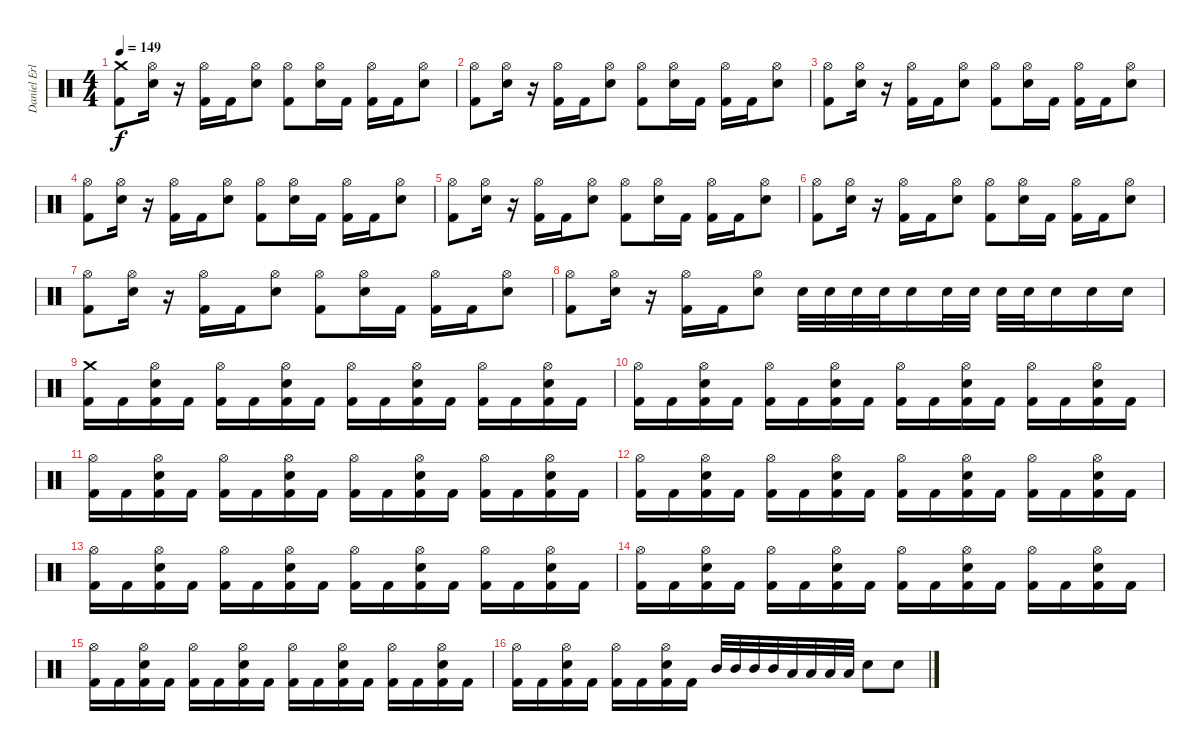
\track ("Daniel Erlandsson" "Daniel Erl") {instrument percussion}
\staff {score}
\articulation defaults
\ts (4 4)
\tempo 149
\clef neutral
\ks c
("Kick (hit) 2" "Crash medium (hit)").8{dy f} ("Electric Snare (hit)" "Hi-Hat (open)").16 r.16 ("Kick (hit) 2" "Hi-Hat (open)").16 "Kick (hit) 2".16 ("Electric Snare (hit)" "Hi-Hat (open)").8 ("Kick (hit) 2" "Hi-Hat (open)").8 ("Electric Snare (hit)" "Hi-Hat (open)").16 "Kick (hit) 2".16 ("Kick (hit) 2" "Hi-Hat (open)").16 "Kick (hit) 2".16 ("Electric Snare (hit)" "Hi-Hat (open)").8 |
("Kick (hit) 2" "Hi-Hat (open)").8 ("Electric Snare (hit)" "Hi-Hat (open)").16 r.16 ("Kick (hit) 2" "Hi-Hat (open)").16 "Kick (hit) 2".16 ("Electric Snare (hit)" "Hi-Hat (open)").8 ("Kick (hit) 2" "Hi-Hat (open)").8 ("Electric Snare (hit)" "Hi-Hat (open)").16 "Kick (hit) 2".16 ("Kick (hit) 2" "Hi-Hat (open)").16 "Kick (hit) 2".16 ("Electric Snare (hit)" "Hi-Hat (open)").8 |
("Kick (hit) 2" "Hi-Hat (open)").8 ("Electric Snare (hit)" "Hi-Hat (open)").16 r.16 ("Kick (hit) 2" "Hi-Hat (open)").16 "Kick (hit) 2".16 ("Electric Snare (hit)" "Hi-Hat (open)").8 ("Kick (hit) 2" "Hi-Hat (open)").8 ("Electric Snare (hit)" "Hi-Hat (open)").16 "Kick (hit) 2".16 ("Kick (hit) 2" "Hi-Hat (open)").16 "Kick (hit) 2".16 ("Electric Snare (hit)" "Hi-Hat (open)").8 |
("Kick (hit) 2" "Hi-Hat (open)").8 ("Electric Snare (hit)" "Hi-Hat (open)").16 r.16 ("Kick (hit) 2" "Hi-Hat (open)").16 "Kick (hit) 2".16 ("Electric Snare (hit)" "Hi-Hat (open)").8 ("Kick (hit) 2" "Hi-Hat (open)").8 ("Electric Snare (hit)" "Hi-Hat (open)").16 "Kick (hit) 2".16 ("Kick (hit) 2" "Hi-Hat (open)").16 "Kick (hit) 2".16 ("Electric Snare (hit)" "Hi-Hat (open)").8 |
("Kick (hit) 2" "Hi-Hat (open)").8 ("Electric Snare (hit)" "Hi-Hat (open)").16 r.16 ("Kick (hit) 2" "Hi-Hat (open)").16 "Kick (hit) 2".16 ("Electric Snare (hit)" "Hi-Hat (open)").8 ("Kick (hit) 2" "Hi-Hat (open)").8 ("Electric Snare (hit)" "Hi-Hat (open)").16 "Kick (hit) 2".16 ("Kick (hit) 2" "Hi-Hat (open)").16 "Kick (hit) 2".16 ("Electric Snare (hit)" "Hi-Hat (open)").8 |
("Kick (hit) 2" "Hi-Hat (open)").8 ("Electric Snare (hit)" "Hi-Hat (open)").16 r.16 ("Kick (hit) 2" "Hi-Hat (open)").16 "Kick (hit) 2".16 ("Electric Snare (hit)" "Hi-Hat (open)").8 ("Kick (hit) 2" "Hi-Hat (open)").8 ("Electric Snare (hit)" "Hi-Hat (open)").16 "Kick (hit) 2".16 ("Kick (hit) 2" "Hi-Hat (open)").16 "Kick (hit) 2".16 ("Electric Snare (hit)" "Hi-Hat (open)").8 |
("Kick (hit) 2" "Hi-Hat (open)").8 ("Electric Snare (hit)" "Hi-Hat (open)").16 r.16 ("Kick (hit) 2" "Hi-Hat (open)").16 "Kick (hit) 2".16 ("Electric Snare (hit)" "Hi-Hat (open)").8 ("Kick (hit) 2" "Hi-Hat (open)").8 ("Electric Snare (hit)" "Hi-Hat (open)").16 "Kick (hit) 2".16 ("Kick (hit) 2" "Hi-Hat (open)").16 "Kick (hit) 2".16 ("Electric Snare (hit)" "Hi-Hat (open)").8 |
("Kick (hit) 2" "Hi-Hat (open)").8 ("Electric Snare (hit)" "Hi-Hat (open)").16 r.16 ("Kick (hit) 2" "Hi-Hat (open)").16 "Kick (hit) 2".16 ("Electric Snare (hit)" "Hi-Hat (open)").8 "Electric Snare (hit)".32 "Electric Snare (hit)".32 "Electric Snare (hit)".32 "Electric Snare (hit)".32 "Electric Snare (hit)".16 "Electric Snare (hit)".32 "Electric Snare (hit)".32 "Electric Snare (hit)".32 "Electric Snare (hit)".32 "Electric Snare (hit)".16 "Electric Snare (hit)".16 "Electric Snare (hit)".16 |
("Kick (hit) 2" "Crash medium (hit)").16 "Kick (hit) 2".16 ("Kick (hit) 2" "Electric Snare (hit)" "Hi-Hat (open)").16 "Kick (hit) 2".16 ("Kick (hit) 2" "Hi-Hat (open)").16 "Kick (hit) 2".16 ("Kick (hit) 2" "Electric Snare (hit)" "Hi-Hat (open)").16 "Kick (hit) 2".16 ("Kick (hit) 2" "Hi-Hat (open)").16 "Kick (hit) 2".16 ("Kick (hit) 2" "Electric Snare (hit)" "Hi-Hat (open)").16 "Kick (hit) 2".16 ("Kick (hit) 2" "Hi-Hat (open)").16 "Kick (hit) 2".16 ("Kick (hit) 2" "Electric Snare (hit)" "Hi-Hat (open)").16 "Kick (hit) 2".16 |
("Kick (hit) 2" "Hi-Hat (open)").16 "Kick (hit) 2".16 ("Kick (hit) 2" "Electric Snare (hit)" "Hi-Hat (open)").16 "Kick (hit) 2".16 ("Kick (hit) 2" "Hi-Hat (open)").16 "Kick (hit) 2".16 ("Kick (hit) 2" "Electric Snare (hit)" "Hi-Hat (open)").16 "Kick (hit) 2".16 ("Kick (hit) 2" "Hi-Hat (open)").16 "Kick (hit) 2".16 ("Kick (hit) 2" "Electric Snare (hit)" "Hi-Hat (open)").16 "Kick (hit) 2".16 ("Kick (hit) 2" "Hi-Hat (open)").16 "Kick (hit) 2".16 ("Kick (hit) 2" "Electric Snare (hit)" "Hi-Hat (open)").16 "Kick (hit) 2".16 |
("Kick (hit) 2" "Hi-Hat (open)").16 "Kick (hit) 2".16 ("Kick (hit) 2" "Electric Snare (hit)" "Hi-Hat (open)").16 "Kick (hit) 2".16 ("Kick (hit) 2" "Hi-Hat (open)").16 "Kick (hit) 2".16 ("Kick (hit) 2" "Electric Snare (hit)" "Hi-Hat (open)").16 "Kick (hit) 2".16 ("Kick (hit) 2" "Hi-Hat (open)").16 "Kick (hit) 2".16 ("Kick (hit) 2" "Electric Snare (hit)" "Hi-Hat (open)").16 "Kick (hit) 2".16 ("Kick (hit) 2" "Hi-Hat (open)").16 "Kick (hit) 2".16 ("Kick (hit) 2" "Electric Snare (hit)" "Hi-Hat (open)").16 "Kick (hit) 2".16 |
("Kick (hit) 2" "Hi-Hat (open)").16 "Kick (hit) 2".16 ("Kick (hit) 2" "Electric Snare (hit)" "Hi-Hat (open)").16 "Kick (hit) 2".16 ("Kick (hit) 2" "Hi-Hat (open)").16 "Kick (hit) 2".16 ("Kick (hit) 2" "Electric Snare (hit)" "Hi-Hat (open)").16 "Kick (hit) 2".16 ("Kick (hit) 2" "Hi-Hat (open)").16 "Kick (hit) 2".16 ("Kick (hit) 2" "Electric Snare (hit)" "Hi-Hat (open)").16 "Kick (hit) 2".16 ("Kick (hit) 2" "Hi-Hat (open)").16 "Kick (hit) 2".16 ("Kick (hit) 2" "Electric Snare (hit)" "Hi-Hat (open)").16 "Kick (hit) 2".16 |
("Kick (hit) 2" "Hi-Hat (open)").16 "Kick (hit) 2".16 ("Kick (hit) 2" "Electric Snare (hit)" "Hi-Hat (open)").16 "Kick (hit) 2".16 ("Kick (hit) 2" "Hi-Hat (open)").16 "Kick (hit) 2".16 ("Kick (hit) 2" "Electric Snare (hit)" "Hi-Hat (open)").16 "Kick (hit) 2".16 ("Kick (hit) 2" "Hi-Hat (open)").16 "Kick (hit) 2".16 ("Kick (hit) 2" "Electric Snare (hit)" "Hi-Hat (open)").16 "Kick (hit) 2".16 ("Kick (hit) 2" "Hi-Hat (open)").16 "Kick (hit) 2".16 ("Kick (hit) 2" "Electric Snare (hit)" "Hi-Hat (open)").16 "Kick (hit) 2".16 |
("Kick (hit) 2" "Hi-Hat (open)").16 "Kick (hit) 2".16 ("Kick (hit) 2" "Electric Snare (hit)" "Hi-Hat (open)").16 "Kick (hit) 2".16 ("Kick (hit) 2" "Hi-Hat (open)").16 "Kick (hit) 2".16 ("Kick (hit) 2" "Electric Snare (hit)" "Hi-Hat (open)").16 "Kick (hit) 2".16 ("Kick (hit) 2" "Hi-Hat (open)").16 "Kick (hit) 2".16 ("Kick (hit) 2" "Electric Snare (hit)" "Hi-Hat (open)").16 "Kick (hit) 2".16 ("Kick (hit) 2" "Hi-Hat (open)").16 "Kick (hit) 2".16 ("Kick (hit) 2" "Electric Snare (hit)" "Hi-Hat (open)").16 "Kick (hit) 2".16 |
("Kick (hit) 2" "Hi-Hat (open)").16 "Kick (hit) 2".16 ("Kick (hit) 2" "Electric Snare (hit)" "Hi-Hat (open)").16 "Kick (hit) 2".16 ("Kick (hit) 2" "Hi-Hat (open)").16 "Kick (hit) 2".16 ("Kick (hit) 2" "Electric Snare (hit)" "Hi-Hat (open)").16 "Kick (hit) 2".16 ("Kick (hit) 2" "Hi-Hat (open)").16 "Kick (hit) 2".16 ("Kick (hit) 2" "Electric Snare (hit)" "Hi-Hat (open)").16 "Kick (hit) 2".16 ("Kick (hit) 2" "Hi-Hat (open)").16 "Kick (hit) 2".16 ("Kick (hit) 2" "Electric Snare (hit)" "Hi-Hat (open)").16 "Kick (hit) 2".16 |
("Kick (hit) 2" "Hi-Hat (open)").16 "Kick (hit) 2".16 ("Kick (hit) 2" "Electric Snare (hit)" "Hi-Hat (open)").16 "Kick (hit) 2".16 ("Kick (hit) 2" "Hi-Hat (open)").16 "Kick (hit) 2".16 ("Kick (hit) 2" "Electric Snare (hit)" "Hi-Hat (open)").16 "Kick (hit) 2".16 "Mid Tom (hit)".32 "Mid Tom (hit)".32 "Mid Tom (hit)".32 "Mid Tom (hit)".32 "Low Tom (hit)".32 "Low Tom (hit)".32 "Low Tom (hit)".32 "Low Tom (hit)".32 "Electric Snare (hit)".8 "Electric Snare (hit)".8
